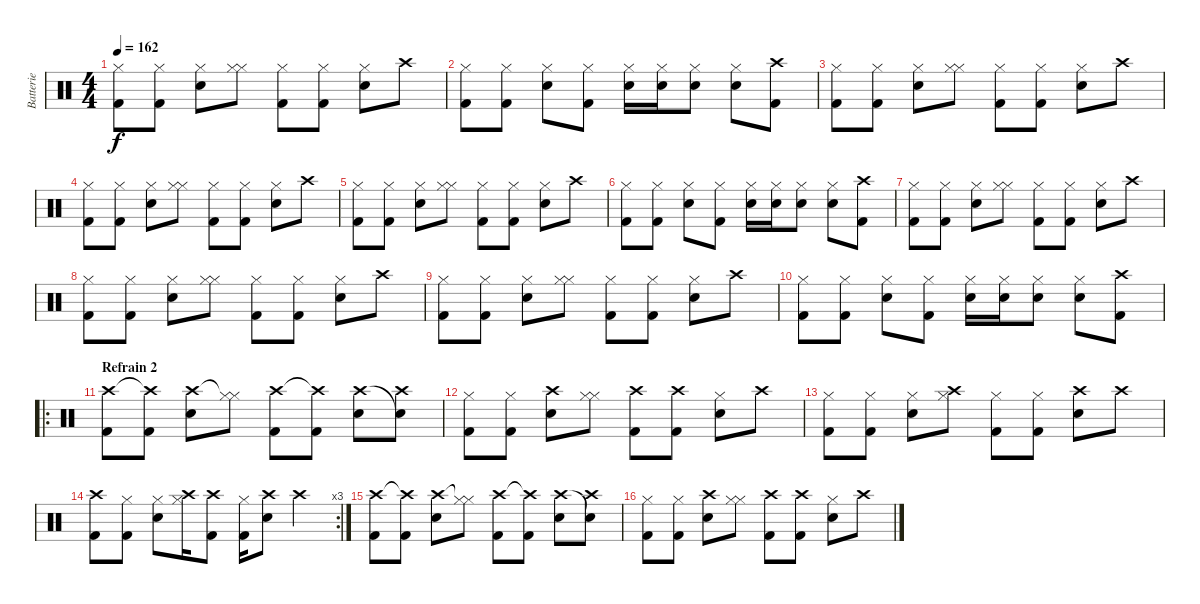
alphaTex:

\track ("Batterie" "Batterie") {instrument percussion}
\staff {score}
\articulation defaults
\ts (4 4)
\tempo 162
\clef neutral
\ks c
("Kick (hit) 2" "Hi-Hat (closed)").8{dy f} ("Kick (hit) 2" "Hi-Hat (closed)").8 ("Snare (hit) 2" "Hi-Hat (closed)").8 ("Hi-Hat (closed)" "Hi-Hat (closed)").8 ("Kick (hit) 2" "Hi-Hat (closed)").8 ("Kick (hit) 2" "Hi-Hat (closed)").8 ("Snare (hit) 2" "Hi-Hat (closed)").8 "Crash high (hit)".8 |
("Kick (hit) 2" "Hi-Hat (closed)").8 ("Kick (hit) 2" "Hi-Hat (closed)").8 ("Snare (hit) 2" "Hi-Hat (closed)").8 ("Kick (hit) 2" "Hi-Hat (closed)").8 ("Snare (hit) 2" "Hi-Hat (closed)").16 ("Snare (hit) 2" "Hi-Hat (closed)").16 ("Snare (hit) 2" "Hi-Hat (closed)").8 ("Snare (hit) 2" "Hi-Hat (closed)").8 ("Kick (hit) 2" "Crash high (hit)").8 |
("Kick (hit) 2" "Hi-Hat (closed)").8 ("Kick (hit) 2" "Hi-Hat (closed)").8 ("Snare (hit) 2" "Hi-Hat (closed)").8 ("Hi-Hat (closed)" "Hi-Hat (closed)").8 ("Kick (hit) 2" "Hi-Hat (closed)").8 ("Kick (hit) 2" "Hi-Hat (closed)").8 ("Snare (hit) 2" "Hi-Hat (closed)").8 "Crash high (hit)".8 |
("Kick (hit) 2" "Hi-Hat (closed)").8 ("Kick (hit) 2" "Hi-Hat (closed)").8 ("Snare (hit) 2" "Hi-Hat (closed)").8 ("Hi-Hat (closed)" "Hi-Hat (closed)").8 ("Kick (hit) 2" "Hi-Hat (closed)").8 ("Kick (hit) 2" "Hi-Hat (closed)").8 ("Snare (hit) 2" "Hi-Hat (closed)").8 "Crash high (hit)".8 |
("Kick (hit) 2" "Hi-Hat (closed)").8 ("Kick (hit) 2" "Hi-Hat (closed)").8 ("Snare (hit) 2" "Hi-Hat (closed)").8 ("Hi-Hat (closed)" "Hi-Hat (closed)").8 ("Kick (hit) 2" "Hi-Hat (closed)").8 ("Kick (hit) 2" "Hi-Hat (closed)").8 ("Snare (hit) 2" "Hi-Hat (closed)").8 "Crash high (hit)".8 |
("Kick (hit) 2" "Hi-Hat (closed)").8 ("Kick (hit) 2" "Hi-Hat (closed)").8 ("Snare (hit) 2" "Hi-Hat (closed)").8 ("Kick (hit) 2" "Hi-Hat (closed)").8 ("Snare (hit) 2" "Hi-Hat (closed)").16 ("Snare (hit) 2" "Hi-Hat (closed)").16 ("Snare (hit) 2" "Hi-Hat (closed)").8 ("Snare (hit) 2" "Hi-Hat (closed)").8 ("Kick (hit) 2" "Crash high (hit)").8 |
("Kick (hit) 2" "Hi-Hat (closed)").8 ("Kick (hit) 2" "Hi-Hat (closed)").8 ("Snare (hit) 2" "Hi-Hat (closed)").8 ("Hi-Hat (closed)" "Hi-Hat (closed)").8 ("Kick (hit) 2" "Hi-Hat (closed)").8 ("Kick (hit) 2" "Hi-Hat (closed)").8 ("Snare (hit) 2" "Hi-Hat (closed)").8 "Crash high (hit)".8 |
("Kick (hit) 2" "Hi-Hat (closed)").8 ("Kick (hit) 2" "Hi-Hat (closed)").8 ("Snare (hit) 2" "Hi-Hat (closed)").8 ("Hi-Hat (closed)" "Hi-Hat (closed)").8 ("Kick (hit) 2" "Hi-Hat (closed)").8 ("Kick (hit) 2" "Hi-Hat (closed)").8 ("Snare (hit) 2" "Hi-Hat (closed)").8 "Crash high (hit)".8 |
("Kick (hit) 2" "Hi-Hat (closed)").8 ("Kick (hit) 2" "Hi-Hat (closed)").8 ("Snare (hit) 2" "Hi-Hat (closed)").8 ("Hi-Hat (closed)" "Hi-Hat (closed)").8 ("Kick (hit) 2" "Hi-Hat (closed)").8 ("Kick (hit) 2" "Hi-Hat (closed)").8 ("Snare (hit) 2" "Hi-Hat (closed)").8 "Crash high (hit)".8 |
("Kick (hit) 2" "Hi-Hat (closed)").8 ("Kick (hit) 2" "Hi-Hat (closed)").8 ("Snare (hit) 2" "Hi-Hat (closed)").8 ("Kick (hit) 2" "Hi-Hat (closed)").8 ("Snare (hit) 2" "Hi-Hat (closed)").16 ("Snare (hit) 2" "Hi-Hat (closed)").16 ("Snare (hit) 2" "Hi-Hat (closed)").8 ("Snare (hit) 2" "Hi-Hat (closed)").8 ("Kick (hit) 2" "Crash high (hit)").8 |
\ro
\section ("" "Refrain 2")
("Kick (hit) 2" "Crash high (hit)").8 ("Kick (hit) 2" "Crash high (hit)"{t}).8 ("Snare (hit) 2" "Crash high (hit)").8 ("Hi-Hat (closed)" "Hi-Hat (closed)"{t}).8 ("Kick (hit) 2" "Crash high (hit)").8 ("Kick (hit) 2" "Crash high (hit)"{t}).8 ("Snare (hit) 2" "Crash high (hit)").8 ("Crash high (hit)" "Snare (hit)"{t}).8 |
("Kick (hit) 2" "Hi-Hat (closed)").8 ("Kick (hit) 2" "Hi-Hat (closed)").8 ("Snare (hit) 2" "Crash high (hit)").8 ("Hi-Hat (closed)" "Hi-Hat (closed)").8 ("Kick (hit) 2" "Crash high (hit)").8 ("Kick (hit) 2" "Crash high (hit)").8 ("Snare (hit) 2" "Hi-Hat (closed)").8 "Crash high (hit)".8 |
("Kick (hit) 2" "Hi-Hat (closed)").8 ("Kick (hit) 2" "Hi-Hat (closed)").8 ("Snare (hit) 2" "Hi-Hat (closed)").8 ("Hi-Hat (closed)" "Crash high (hit)").8 ("Kick (hit) 2" "Hi-Hat (closed)").8 ("Kick (hit) 2" "Hi-Hat (closed)").8 ("Snare (hit) 2" "Crash high (hit)").8 "Crash high (hit)".8 |
\rc 3
("Kick (hit) 2" "Crash high (hit)").8 ("Kick (hit) 2" "Hi-Hat (closed)").8 ("Snare (hit) 2" "Hi-Hat (closed)").8 ("Hi-Hat (closed)" "Crash high (hit)").16 ("Kick (hit) 2" "Crash high (hit)").8 ("Kick (hit) 2" "Hi-Hat (closed)").16 ("Snare (hit) 2" "Crash high (hit)").8 "Crash high (hit)".4 |
("Kick (hit) 2" "Crash high (hit)").8 ("Kick (hit) 2" "Crash high (hit)"{t}).8 ("Snare (hit) 2" "Crash high (hit)").8 ("Hi-Hat (closed)" "Hi-Hat (closed)"{t}).8 ("Kick (hit) 2" "Crash high (hit)").8 ("Kick (hit) 2" "Crash high (hit)"{t}).8 ("Snare (hit) 2" "Crash high (hit)").8 ("Crash high (hit)" "Snare (hit)"{t}).8 |
("Kick (hit) 2" "Hi-Hat (closed)").8 ("Kick (hit) 2" "Hi-Hat (closed)").8 ("Snare (hit) 2" "Crash high (hit)").8 ("Hi-Hat (closed)" "Hi-Hat (closed)").8 ("Kick (hit) 2" "Crash high (hit)").8 ("Kick (hit) 2" "Crash high (hit)").8 ("Snare (hit) 2" "Hi-Hat (closed)").8 "Crash high (hit)".8
